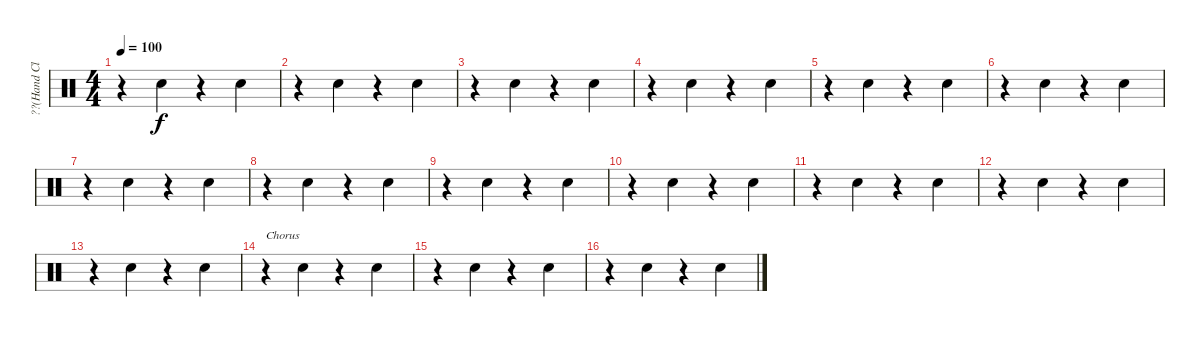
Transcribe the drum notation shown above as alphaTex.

\track ("??(Hand Clap)" "??(Hand Cl") {instrument percussion}
\staff {score}
\articulation defaults
\ts (4 4)
\tempo 100
\clef neutral
\ks c
r.4{dy f} "Hand Clap (hit)".4 r.4 "Hand Clap (hit)".4 |
r.4 "Hand Clap (hit)".4 r.4 "Hand Clap (hit)".4 |
r.4 "Hand Clap (hit)".4 r.4 "Hand Clap (hit)".4 |
r.4 "Hand Clap (hit)".4 r.4 "Hand Clap (hit)".4 |
r.4 "Hand Clap (hit)".4 r.4 "Hand Clap (hit)".4 |
r.4 "Hand Clap (hit)".4 r.4 "Hand Clap (hit)".4 |
r.4 "Hand Clap (hit)".4 r.4 "Hand Clap (hit)".4 |
r.4 "Hand Clap (hit)".4 r.4 "Hand Clap (hit)".4 |
r.4 "Hand Clap (hit)".4 r.4 "Hand Clap (hit)".4 |
r.4 "Hand Clap (hit)".4 r.4 "Hand Clap (hit)".4 |
r.4 "Hand Clap (hit)".4 r.4 "Hand Clap (hit)".4 |
r.4 "Hand Clap (hit)".4 r.4 "Hand Clap (hit)".4 |
r.4 "Hand Clap (hit)".4 r.4 "Hand Clap (hit)".4 |
r.4{txt "Chorus"} "Hand Clap (hit)".4 r.4 "Hand Clap (hit)".4 |
r.4 "Hand Clap (hit)".4 r.4 "Hand Clap (hit)".4 |
r.4 "Hand Clap (hit)".4 r.4 "Hand Clap (hit)".4
